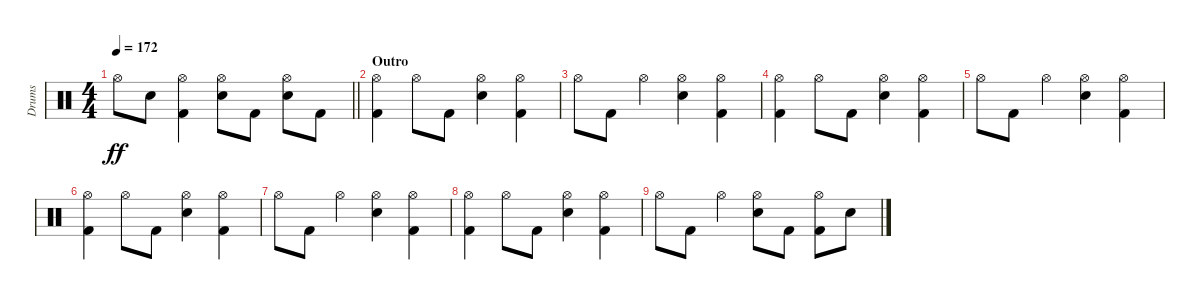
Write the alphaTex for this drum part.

\track ("Drums" "Drums") {instrument percussion}
\staff {score}
\articulation defaults
\ts (4 4)
\tempo 172
\clef neutral
\barLineRight lightlight
\ks c "Hi-Hat (open)".8{dy ff} "Snare (hit) 2".8
("Hi-Hat (open)" "Kick (hit) 2").4 ("Hi-Hat (open)" "Snare (hit) 2").8 "Kick (hit) 2".8 ("Hi-Hat (open)" "Snare (hit) 2").8 "Kick (hit) 2".8 |
\section ("" "Outro")
("Hi-Hat (open)" "Kick (hit) 2").4 "Hi-Hat (open)".8 "Kick (hit) 2".8 ("Hi-Hat (open)" "Snare (hit) 2").4 ("Hi-Hat (open)" "Kick (hit) 2").4 |
"Hi-Hat (open)".8 "Kick (hit) 2".8 "Hi-Hat (open)".4 ("Hi-Hat (open)" "Snare (hit) 2").4 ("Hi-Hat (open)" "Kick (hit) 2").4 |
("Hi-Hat (open)" "Kick (hit) 2").4 "Hi-Hat (open)".8 "Kick (hit) 2".8 ("Hi-Hat (open)" "Snare (hit) 2").4 ("Hi-Hat (open)" "Kick (hit) 2").4 |
"Hi-Hat (open)".8 "Kick (hit) 2".8 "Hi-Hat (open)".4 ("Hi-Hat (open)" "Snare (hit) 2").4 ("Hi-Hat (open)" "Kick (hit) 2").4 |
("Hi-Hat (open)" "Kick (hit) 2").4 "Hi-Hat (open)".8 "Kick (hit) 2".8 ("Hi-Hat (open)" "Snare (hit) 2").4 ("Hi-Hat (open)" "Kick (hit) 2").4 |
"Hi-Hat (open)".8 "Kick (hit) 2".8 "Hi-Hat (open)".4 ("Hi-Hat (open)" "Snare (hit) 2").4 ("Hi-Hat (open)" "Kick (hit) 2").4 |
("Hi-Hat (open)" "Kick (hit) 2").4 "Hi-Hat (open)".8 "Kick (hit) 2".8 ("Hi-Hat (open)" "Snare (hit) 2").4 ("Hi-Hat (open)" "Kick (hit) 2").4 |
"Hi-Hat (open)".8 "Kick (hit) 2".8 "Hi-Hat (open)".4 ("Hi-Hat (open)" "Snare (hit) 2").8 "Kick (hit) 2".8 ("Hi-Hat (open)" "Kick (hit) 2").8 "Snare (hit) 2".8
